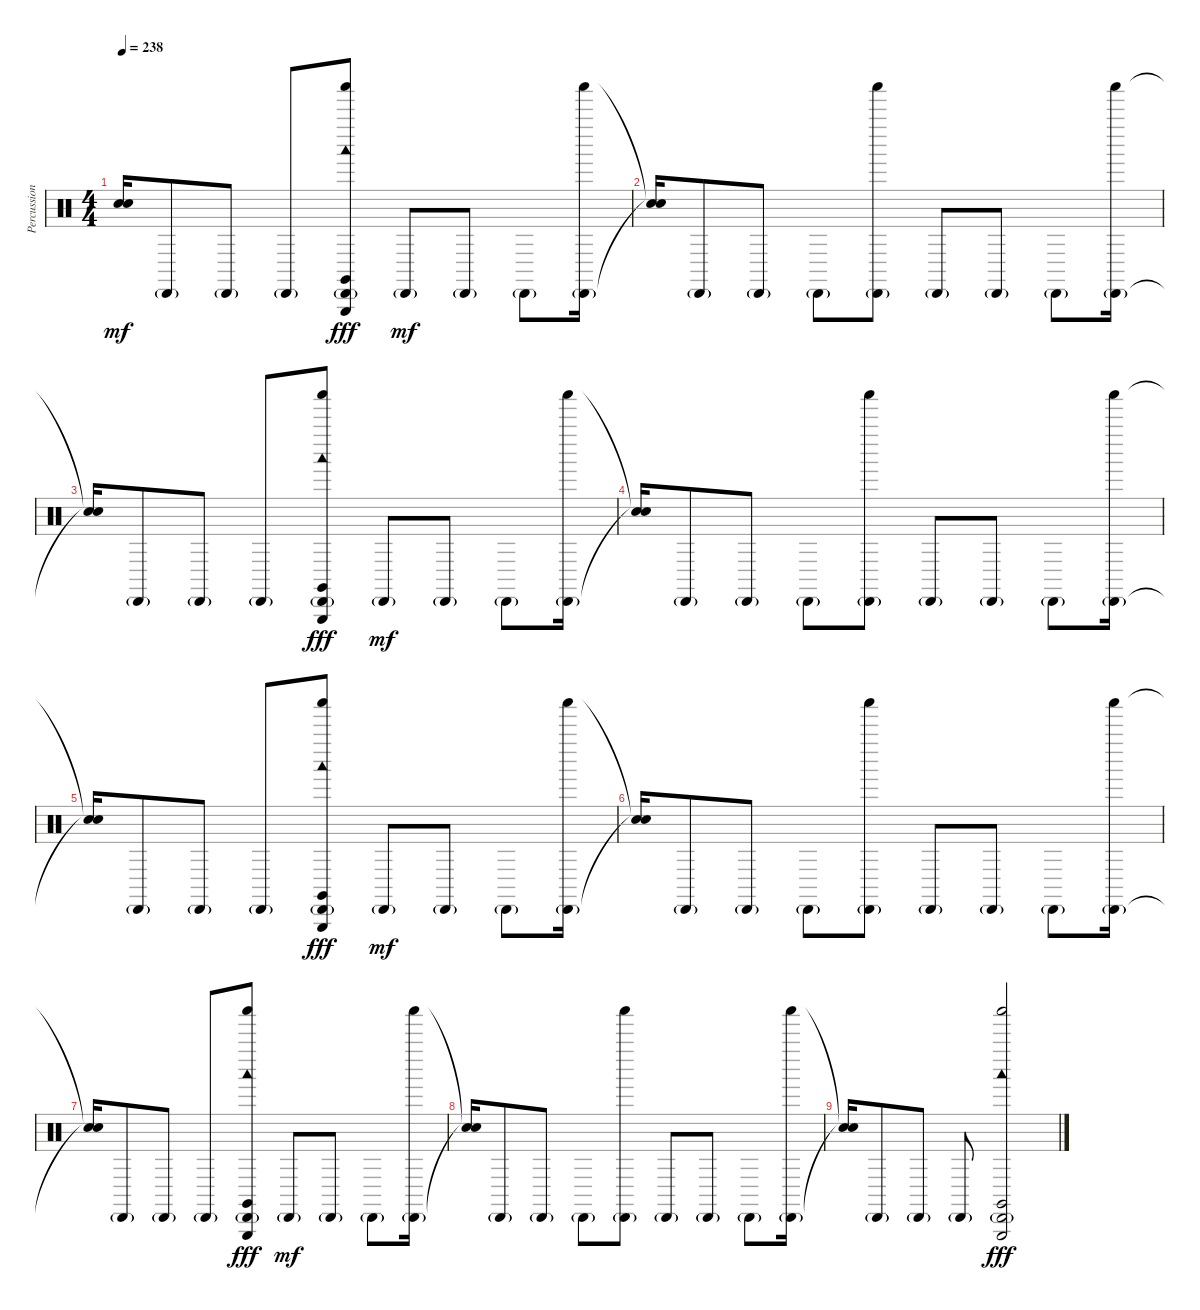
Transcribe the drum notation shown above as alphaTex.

\track ("Percussion" "Percussion") {instrument percussion}
\staff {score}
\articulation defaults
\ts (4 4)
\tempo 238
\clef neutral
\ks c
("Snare (hit)"{t} "Snare (hit)"{t}).16{dy mf} "Cabasa (hit)"{g}.8 "Cabasa (hit)"{g}.8 "Cabasa (hit)"{g}.8 ("Shaker (hit)" "Cabasa (hit)"{g} "Claves (hit)" "Woodblock low (hit)" "Triangle (hit)").8{dy fff} "Cabasa (hit)"{g}.8{dy mf} "Cabasa (hit)"{g}.8 "Cabasa (hit)"{g}.8 ("Shaker (hit)" "Cabasa (hit)"{g}).16 |
("Snare (hit)"{t} "Snare (hit)"{t}).16 "Cabasa (hit)"{g}.8 "Cabasa (hit)"{g}.8 "Cabasa (hit)"{g}.8 ("Shaker (hit)" "Cabasa (hit)"{g}).8 "Cabasa (hit)"{g}.8 "Cabasa (hit)"{g}.8 "Cabasa (hit)"{g}.8 ("Shaker (hit)" "Cabasa (hit)"{g}).16 |
("Snare (hit)"{t} "Snare (hit)"{t}).16 "Cabasa (hit)"{g}.8 "Cabasa (hit)"{g}.8 "Cabasa (hit)"{g}.8 ("Shaker (hit)" "Cabasa (hit)"{g} "Claves (hit)" "Woodblock low (hit)" "Triangle (hit)").8{dy fff} "Cabasa (hit)"{g}.8{dy mf} "Cabasa (hit)"{g}.8 "Cabasa (hit)"{g}.8 ("Shaker (hit)" "Cabasa (hit)"{g}).16 |
("Snare (hit)"{t} "Snare (hit)"{t}).16 "Cabasa (hit)"{g}.8 "Cabasa (hit)"{g}.8 "Cabasa (hit)"{g}.8 ("Shaker (hit)" "Cabasa (hit)"{g}).8 "Cabasa (hit)"{g}.8 "Cabasa (hit)"{g}.8 "Cabasa (hit)"{g}.8 ("Shaker (hit)" "Cabasa (hit)"{g}).16 |
("Snare (hit)"{t} "Snare (hit)"{t}).16 "Cabasa (hit)"{g}.8 "Cabasa (hit)"{g}.8 "Cabasa (hit)"{g}.8 ("Shaker (hit)" "Cabasa (hit)"{g} "Claves (hit)" "Woodblock low (hit)" "Triangle (hit)").8{dy fff} "Cabasa (hit)"{g}.8{dy mf} "Cabasa (hit)"{g}.8 "Cabasa (hit)"{g}.8 ("Shaker (hit)" "Cabasa (hit)"{g}).16 |
("Snare (hit)"{t} "Snare (hit)"{t}).16 "Cabasa (hit)"{g}.8 "Cabasa (hit)"{g}.8 "Cabasa (hit)"{g}.8 ("Shaker (hit)" "Cabasa (hit)"{g}).8 "Cabasa (hit)"{g}.8 "Cabasa (hit)"{g}.8 "Cabasa (hit)"{g}.8 ("Shaker (hit)" "Cabasa (hit)"{g}).16 |
("Snare (hit)"{t} "Snare (hit)"{t}).16 "Cabasa (hit)"{g}.8 "Cabasa (hit)"{g}.8 "Cabasa (hit)"{g}.8 ("Shaker (hit)" "Cabasa (hit)"{g} "Claves (hit)" "Woodblock low (hit)" "Triangle (hit)").8{dy fff} "Cabasa (hit)"{g}.8{dy mf} "Cabasa (hit)"{g}.8 "Cabasa (hit)"{g}.8 ("Shaker (hit)" "Cabasa (hit)"{g}).16 |
("Snare (hit)"{t} "Snare (hit)"{t}).16 "Cabasa (hit)"{g}.8 "Cabasa (hit)"{g}.8 "Cabasa (hit)"{g}.8 ("Shaker (hit)" "Cabasa (hit)"{g}).8 "Cabasa (hit)"{g}.8 "Cabasa (hit)"{g}.8 "Cabasa (hit)"{g}.8 ("Shaker (hit)" "Cabasa (hit)"{g}).16 |
("Snare (hit)"{t} "Snare (hit)"{t}).16 "Cabasa (hit)"{g}.8 "Cabasa (hit)"{g}.8 "Cabasa (hit)"{g}.8 ("Shaker (hit)" "Cabasa (hit)"{g} "Claves (hit)" "Woodblock low (hit)" "Triangle (hit)").2{dy fff}
